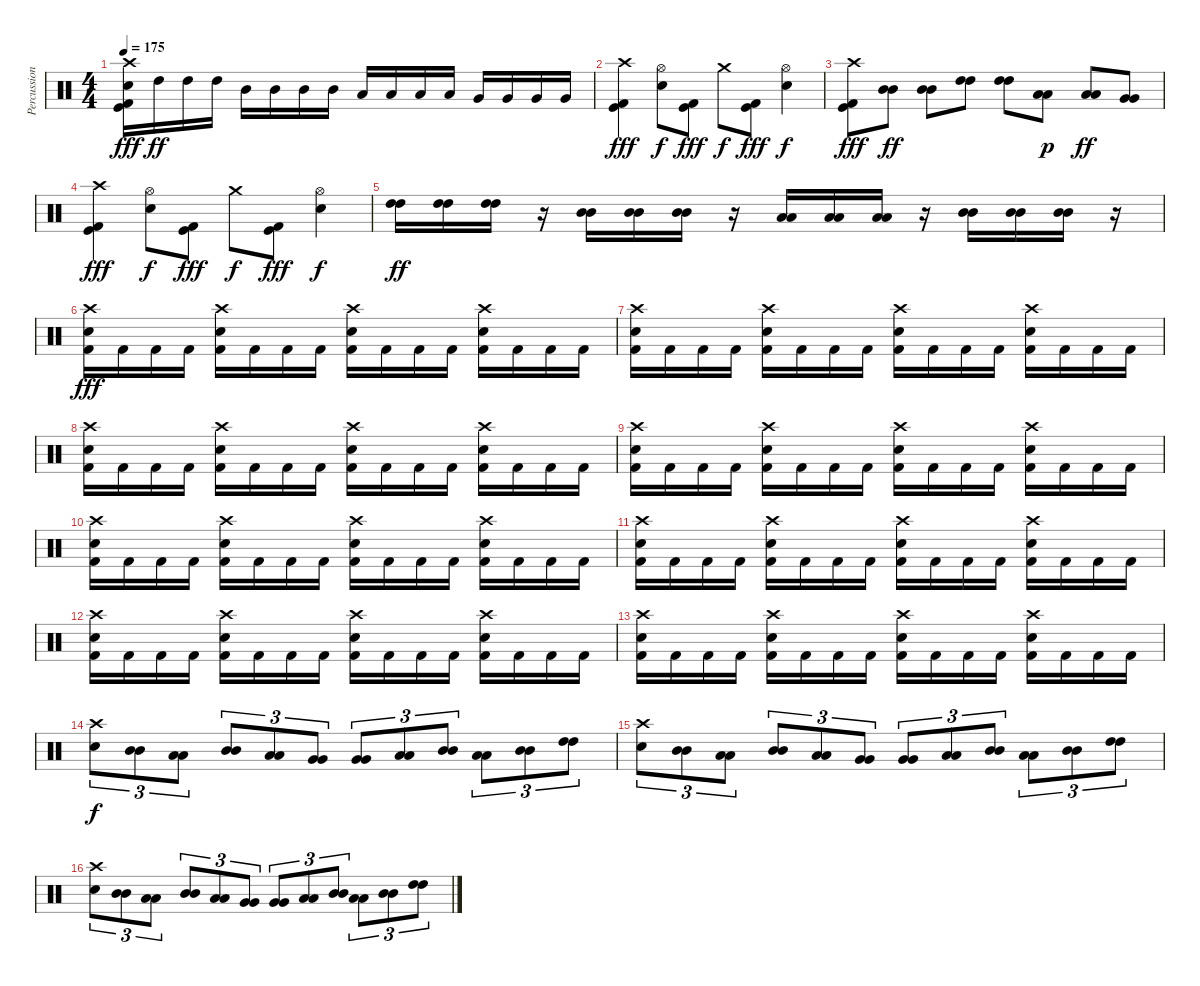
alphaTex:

\track ("Percussion" "Percussion") {instrument percussion}
\staff {score}
\articulation defaults
\ts (4 4)
\tempo 175
\clef neutral
\ks c
("Crash high (hit)" "Electric Snare (hit)" "Kick (hit)" "Kick (hit) 2").16{dy fff} "High Tom (hit)".16{dy ff} "High Tom (hit)".16 "High Tom (hit)".16 "Mid Tom (hit)".16 "Mid Tom (hit)".16 "Mid Tom (hit)".16 "Mid Tom (hit)".16 "Low Tom (hit)".16 "Low Tom (hit)".16 "Low Tom (hit)".16 "Low Tom (hit)".16 "Very Low Tom (hit)".16 "Very Low Tom (hit)".16 "Very Low Tom (hit)".16 "Very Low Tom (hit)".16 |
("Crash high (hit)" "Kick (hit)" "Kick (hit) 2").4{dy fff} ("Hi-Hat (open)" "Electric Snare (hit)").8{dy f} ("Kick (hit)" "Kick (hit) 2").8{dy fff} "Crash medium (hit)".8{dy f} ("Kick (hit)" "Kick (hit) 2").8{dy fff} ("Hi-Hat (open)" "Electric Snare (hit)").4{dy f} |
("Crash high (hit)" "Kick (hit)" "Kick (hit) 2").8{dy fff} ("Mid Tom (hit)" "Mid Tom (hit)").8{dy ff} ("Mid Tom (hit)" "Mid Tom (hit)").8 ("High Tom (hit)" "High Tom (hit)").8 ("High Tom (hit)" "High Tom (hit)").8 ("Low Tom (hit)" "Low Tom (hit)").8{dy p} ("Low Tom (hit)" "Low Tom (hit)").8{dy ff} ("Very Low Tom (hit)" "Very Low Tom (hit)").8 |
("Crash high (hit)" "Kick (hit)" "Kick (hit) 2").4{dy fff} ("Hi-Hat (open)" "Electric Snare (hit)").8{dy f} ("Kick (hit)" "Kick (hit) 2").8{dy fff} "Crash medium (hit)".8{dy f} ("Kick (hit)" "Kick (hit) 2").8{dy fff} ("Hi-Hat (open)" "Electric Snare (hit)").4{dy f} |
("High Tom (hit)" "High Tom (hit)").16{dy ff} ("High Tom (hit)" "High Tom (hit)").16 ("High Tom (hit)" "High Tom (hit)").16 r.16 ("Mid Tom (hit)" "Mid Tom (hit)").16 ("Mid Tom (hit)" "Mid Tom (hit)").16 ("Mid Tom (hit)" "Mid Tom (hit)").16 r.16 ("Low Tom (hit)" "Low Tom (hit)").16 ("Low Tom (hit)" "Low Tom (hit)").16 ("Low Tom (hit)" "Low Tom (hit)").16 r.16 ("Mid Tom (hit)" "Mid Tom (hit)").16 ("Mid Tom (hit)" "Mid Tom (hit)").16 ("Mid Tom (hit)" "Mid Tom (hit)").16 r.16 |
("Crash high (hit)" "Electric Snare (hit)" "Kick (hit) 2").16{dy fff} "Kick (hit) 2".16 "Kick (hit) 2".16 "Kick (hit) 2".16 ("Crash high (hit)" "Electric Snare (hit)" "Kick (hit) 2").16 "Kick (hit) 2".16 "Kick (hit) 2".16 "Kick (hit) 2".16 ("Crash high (hit)" "Electric Snare (hit)" "Kick (hit) 2").16 "Kick (hit) 2".16 "Kick (hit) 2".16 "Kick (hit) 2".16 ("Crash high (hit)" "Electric Snare (hit)" "Kick (hit) 2").16 "Kick (hit) 2".16 "Kick (hit) 2".16 "Kick (hit) 2".16 |
("Crash high (hit)" "Electric Snare (hit)" "Kick (hit) 2").16 "Kick (hit) 2".16 "Kick (hit) 2".16 "Kick (hit) 2".16 ("Crash high (hit)" "Electric Snare (hit)" "Kick (hit) 2").16 "Kick (hit) 2".16 "Kick (hit) 2".16 "Kick (hit) 2".16 ("Crash high (hit)" "Electric Snare (hit)" "Kick (hit) 2").16 "Kick (hit) 2".16 "Kick (hit) 2".16 "Kick (hit) 2".16 ("Crash high (hit)" "Electric Snare (hit)" "Kick (hit) 2").16 "Kick (hit) 2".16 "Kick (hit) 2".16 "Kick (hit) 2".16 |
("Crash high (hit)" "Electric Snare (hit)" "Kick (hit) 2").16 "Kick (hit) 2".16 "Kick (hit) 2".16 "Kick (hit) 2".16 ("Crash high (hit)" "Electric Snare (hit)" "Kick (hit) 2").16 "Kick (hit) 2".16 "Kick (hit) 2".16 "Kick (hit) 2".16 ("Crash high (hit)" "Electric Snare (hit)" "Kick (hit) 2").16 "Kick (hit) 2".16 "Kick (hit) 2".16 "Kick (hit) 2".16 ("Crash high (hit)" "Electric Snare (hit)" "Kick (hit) 2").16 "Kick (hit) 2".16 "Kick (hit) 2".16 "Kick (hit) 2".16 |
("Crash high (hit)" "Electric Snare (hit)" "Kick (hit) 2").16 "Kick (hit) 2".16 "Kick (hit) 2".16 "Kick (hit) 2".16 ("Crash high (hit)" "Electric Snare (hit)" "Kick (hit) 2").16 "Kick (hit) 2".16 "Kick (hit) 2".16 "Kick (hit) 2".16 ("Crash high (hit)" "Electric Snare (hit)" "Kick (hit) 2").16 "Kick (hit) 2".16 "Kick (hit) 2".16 "Kick (hit) 2".16 ("Crash high (hit)" "Electric Snare (hit)" "Kick (hit) 2").16 "Kick (hit) 2".16 "Kick (hit) 2".16 "Kick (hit) 2".16 |
("Crash high (hit)" "Electric Snare (hit)" "Kick (hit) 2").16 "Kick (hit) 2".16 "Kick (hit) 2".16 "Kick (hit) 2".16 ("Crash high (hit)" "Electric Snare (hit)" "Kick (hit) 2").16 "Kick (hit) 2".16 "Kick (hit) 2".16 "Kick (hit) 2".16 ("Crash high (hit)" "Electric Snare (hit)" "Kick (hit) 2").16 "Kick (hit) 2".16 "Kick (hit) 2".16 "Kick (hit) 2".16 ("Crash high (hit)" "Electric Snare (hit)" "Kick (hit) 2").16 "Kick (hit) 2".16 "Kick (hit) 2".16 "Kick (hit) 2".16 |
("Crash high (hit)" "Electric Snare (hit)" "Kick (hit) 2").16 "Kick (hit) 2".16 "Kick (hit) 2".16 "Kick (hit) 2".16 ("Crash high (hit)" "Electric Snare (hit)" "Kick (hit) 2").16 "Kick (hit) 2".16 "Kick (hit) 2".16 "Kick (hit) 2".16 ("Crash high (hit)" "Electric Snare (hit)" "Kick (hit) 2").16 "Kick (hit) 2".16 "Kick (hit) 2".16 "Kick (hit) 2".16 ("Crash high (hit)" "Electric Snare (hit)" "Kick (hit) 2").16 "Kick (hit) 2".16 "Kick (hit) 2".16 "Kick (hit) 2".16 |
("Crash high (hit)" "Electric Snare (hit)" "Kick (hit) 2").16 "Kick (hit) 2".16 "Kick (hit) 2".16 "Kick (hit) 2".16 ("Crash high (hit)" "Electric Snare (hit)" "Kick (hit) 2").16 "Kick (hit) 2".16 "Kick (hit) 2".16 "Kick (hit) 2".16 ("Crash high (hit)" "Electric Snare (hit)" "Kick (hit) 2").16 "Kick (hit) 2".16 "Kick (hit) 2".16 "Kick (hit) 2".16 ("Crash high (hit)" "Electric Snare (hit)" "Kick (hit) 2").16 "Kick (hit) 2".16 "Kick (hit) 2".16 "Kick (hit) 2".16 |
("Crash high (hit)" "Electric Snare (hit)" "Kick (hit) 2").16 "Kick (hit) 2".16 "Kick (hit) 2".16 "Kick (hit) 2".16 ("Crash high (hit)" "Electric Snare (hit)" "Kick (hit) 2").16 "Kick (hit) 2".16 "Kick (hit) 2".16 "Kick (hit) 2".16 ("Crash high (hit)" "Electric Snare (hit)" "Kick (hit) 2").16 "Kick (hit) 2".16 "Kick (hit) 2".16 "Kick (hit) 2".16 ("Crash high (hit)" "Electric Snare (hit)" "Kick (hit) 2").16 "Kick (hit) 2".16 "Kick (hit) 2".16 "Kick (hit) 2".16 |
("Crash high (hit)" "Electric Snare (hit)").8{tu (3 2) dy f} ("Mid Tom (hit)" "Mid Tom (hit)").8{tu (3 2)} ("Low Tom (hit)" "Low Tom (hit)").8{tu (3 2)} ("Mid Tom (hit)" "Mid Tom (hit)").8{tu (3 2)} ("Low Tom (hit)" "Low Tom (hit)").8{tu (3 2)} ("Very Low Tom (hit)" "Very Low Tom (hit)").8{tu (3 2)} ("Very Low Tom (hit)" "Very Low Tom (hit)").8{tu (3 2)} ("Low Tom (hit)" "Low Tom (hit)").8{tu (3 2)} ("Mid Tom (hit)" "Mid Tom (hit)").8{tu (3 2)} ("Low Tom (hit)" "Low Tom (hit)").8{tu (3 2)} ("Mid Tom (hit)" "Mid Tom (hit)").8{tu (3 2)} ("High Tom (hit)" "High Tom (hit)").8{tu (3 2)} |
("Crash high (hit)" "Electric Snare (hit)").8{tu (3 2)} ("Mid Tom (hit)" "Mid Tom (hit)").8{tu (3 2)} ("Low Tom (hit)" "Low Tom (hit)").8{tu (3 2)} ("Mid Tom (hit)" "Mid Tom (hit)").8{tu (3 2)} ("Low Tom (hit)" "Low Tom (hit)").8{tu (3 2)} ("Very Low Tom (hit)" "Very Low Tom (hit)").8{tu (3 2)} ("Very Low Tom (hit)" "Very Low Tom (hit)").8{tu (3 2)} ("Low Tom (hit)" "Low Tom (hit)").8{tu (3 2)} ("Mid Tom (hit)" "Mid Tom (hit)").8{tu (3 2)} ("Low Tom (hit)" "Low Tom (hit)").8{tu (3 2)} ("Mid Tom (hit)" "Mid Tom (hit)").8{tu (3 2)} ("High Tom (hit)" "High Tom (hit)").8{tu (3 2)} |
("Crash high (hit)" "Electric Snare (hit)").8{tu (3 2)} ("Mid Tom (hit)" "Mid Tom (hit)").8{tu (3 2)} ("Low Tom (hit)" "Low Tom (hit)").8{tu (3 2)} ("Mid Tom (hit)" "Mid Tom (hit)").8{tu (3 2)} ("Low Tom (hit)" "Low Tom (hit)").8{tu (3 2)} ("Very Low Tom (hit)" "Very Low Tom (hit)").8{tu (3 2)} ("Very Low Tom (hit)" "Very Low Tom (hit)").8{tu (3 2)} ("Low Tom (hit)" "Low Tom (hit)").8{tu (3 2)} ("Mid Tom (hit)" "Mid Tom (hit)").8{tu (3 2)} ("Low Tom (hit)" "Low Tom (hit)").8{tu (3 2)} ("Mid Tom (hit)" "Mid Tom (hit)").8{tu (3 2)} ("High Tom (hit)" "High Tom (hit)").8{tu (3 2)}
